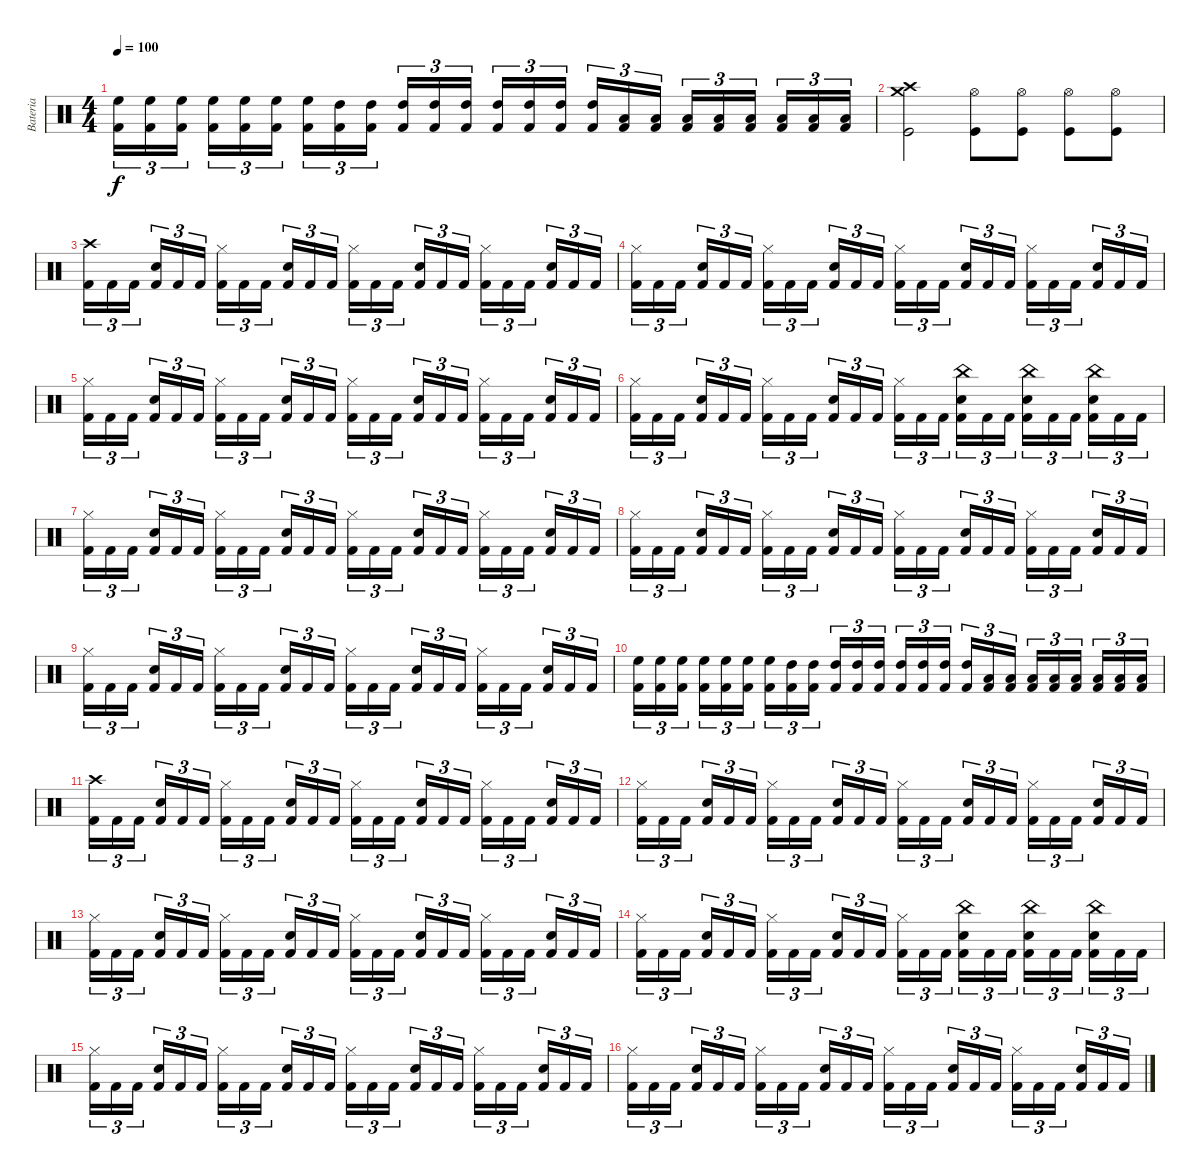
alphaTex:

\track ("Bateria" "Bateria") {instrument percussion}
\staff {score}
\articulation defaults
\ts (4 4)
\tempo 100
\clef neutral
\ks c
("High Floor Tom (hit)" "Kick (hit) 2").16{tu (3 2) dy f} ("High Floor Tom (hit)" "Kick (hit) 2").16{tu (3 2)} ("High Floor Tom (hit)" "Kick (hit) 2").16{tu (3 2)} ("High Floor Tom (hit)" "Kick (hit) 2").16{tu (3 2)} ("High Floor Tom (hit)" "Kick (hit) 2").16{tu (3 2)} ("High Floor Tom (hit)" "Kick (hit) 2").16{tu (3 2)} ("High Floor Tom (hit)" "Kick (hit) 2").16{tu (3 2)} ("High Tom (hit)" "Kick (hit) 2").16{tu (3 2)} ("High Tom (hit)" "Kick (hit) 2").16{tu (3 2)} ("High Tom (hit)" "Kick (hit) 2").16{tu (3 2)} ("High Tom (hit)" "Kick (hit) 2").16{tu (3 2)} ("High Tom (hit)" "Kick (hit) 2").16{tu (3 2)} ("High Tom (hit)" "Kick (hit) 2").16{tu (3 2)} ("High Tom (hit)" "Kick (hit) 2").16{tu (3 2)} ("High Tom (hit)" "Kick (hit) 2").16{tu (3 2)} ("High Tom (hit)" "Kick (hit) 2").16{tu (3 2)} ("Low Tom (hit)" "Kick (hit) 2").16{tu (3 2)} ("Low Tom (hit)" "Kick (hit) 2").16{tu (3 2)} ("Low Tom (hit)" "Kick (hit) 2").16{tu (3 2)} ("Low Tom (hit)" "Kick (hit) 2").16{tu (3 2)} ("Low Tom (hit)" "Kick (hit) 2").16{tu (3 2)} ("Low Tom (hit)" "Kick (hit) 2").16{tu (3 2)} ("Low Tom (hit)" "Kick (hit) 2").16{tu (3 2)} ("Low Tom (hit)" "Kick (hit) 2").16{tu (3 2)} |
("Crash high (hit)" "Crash medium (hit)" "Kick (hit)").2 ("Hi-Hat (open)" "Kick (hit)").8 ("Hi-Hat (open)" "Kick (hit)").8 ("Hi-Hat (open)" "Kick (hit)").8 ("Hi-Hat (open)" "Kick (hit)").8 |
("Crash high (hit)" "Kick (hit) 2").16{tu (3 2)} "Kick (hit) 2".16{tu (3 2)} "Kick (hit) 2".16{tu (3 2)} ("Snare (hit) 2" "Kick (hit) 2").16{tu (3 2)} "Kick (hit) 2".16{tu (3 2)} "Kick (hit) 2".16{tu (3 2)} ("Hi-Hat (closed)" "Kick (hit) 2").16{tu (3 2)} "Kick (hit) 2".16{tu (3 2)} "Kick (hit) 2".16{tu (3 2)} ("Snare (hit) 2" "Kick (hit) 2").16{tu (3 2)} "Kick (hit) 2".16{tu (3 2)} "Kick (hit) 2".16{tu (3 2)} ("Hi-Hat (closed)" "Kick (hit) 2").16{tu (3 2)} "Kick (hit) 2".16{tu (3 2)} "Kick (hit) 2".16{tu (3 2)} ("Snare (hit) 2" "Kick (hit) 2").16{tu (3 2)} "Kick (hit) 2".16{tu (3 2)} "Kick (hit) 2".16{tu (3 2)} ("Hi-Hat (closed)" "Kick (hit) 2").16{tu (3 2)} "Kick (hit) 2".16{tu (3 2)} "Kick (hit) 2".16{tu (3 2)} ("Snare (hit) 2" "Kick (hit) 2").16{tu (3 2)} "Kick (hit) 2".16{tu (3 2)} "Kick (hit) 2".16{tu (3 2)} |
("Hi-Hat (closed)" "Kick (hit) 2").16{tu (3 2)} "Kick (hit) 2".16{tu (3 2)} "Kick (hit) 2".16{tu (3 2)} ("Snare (hit) 2" "Kick (hit) 2").16{tu (3 2)} "Kick (hit) 2".16{tu (3 2)} "Kick (hit) 2".16{tu (3 2)} ("Hi-Hat (closed)" "Kick (hit) 2").16{tu (3 2)} "Kick (hit) 2".16{tu (3 2)} "Kick (hit) 2".16{tu (3 2)} ("Snare (hit) 2" "Kick (hit) 2").16{tu (3 2)} "Kick (hit) 2".16{tu (3 2)} "Kick (hit) 2".16{tu (3 2)} ("Hi-Hat (closed)" "Kick (hit) 2").16{tu (3 2)} "Kick (hit) 2".16{tu (3 2)} "Kick (hit) 2".16{tu (3 2)} ("Snare (hit) 2" "Kick (hit) 2").16{tu (3 2)} "Kick (hit) 2".16{tu (3 2)} "Kick (hit) 2".16{tu (3 2)} ("Hi-Hat (closed)" "Kick (hit) 2").16{tu (3 2)} "Kick (hit) 2".16{tu (3 2)} "Kick (hit) 2".16{tu (3 2)} ("Snare (hit) 2" "Kick (hit) 2").16{tu (3 2)} "Kick (hit) 2".16{tu (3 2)} "Kick (hit) 2".16{tu (3 2)} |
("Hi-Hat (closed)" "Kick (hit) 2").16{tu (3 2)} "Kick (hit) 2".16{tu (3 2)} "Kick (hit) 2".16{tu (3 2)} ("Snare (hit) 2" "Kick (hit) 2").16{tu (3 2)} "Kick (hit) 2".16{tu (3 2)} "Kick (hit) 2".16{tu (3 2)} ("Hi-Hat (closed)" "Kick (hit) 2").16{tu (3 2)} "Kick (hit) 2".16{tu (3 2)} "Kick (hit) 2".16{tu (3 2)} ("Snare (hit) 2" "Kick (hit) 2").16{tu (3 2)} "Kick (hit) 2".16{tu (3 2)} "Kick (hit) 2".16{tu (3 2)} ("Hi-Hat (closed)" "Kick (hit) 2").16{tu (3 2)} "Kick (hit) 2".16{tu (3 2)} "Kick (hit) 2".16{tu (3 2)} ("Snare (hit) 2" "Kick (hit) 2").16{tu (3 2)} "Kick (hit) 2".16{tu (3 2)} "Kick (hit) 2".16{tu (3 2)} ("Hi-Hat (closed)" "Kick (hit) 2").16{tu (3 2)} "Kick (hit) 2".16{tu (3 2)} "Kick (hit) 2".16{tu (3 2)} ("Snare (hit) 2" "Kick (hit) 2").16{tu (3 2)} "Kick (hit) 2".16{tu (3 2)} "Kick (hit) 2".16{tu (3 2)} |
("Hi-Hat (closed)" "Kick (hit) 2").16{tu (3 2)} "Kick (hit) 2".16{tu (3 2)} "Kick (hit) 2".16{tu (3 2)} ("Snare (hit) 2" "Kick (hit) 2").16{tu (3 2)} "Kick (hit) 2".16{tu (3 2)} "Kick (hit) 2".16{tu (3 2)} ("Hi-Hat (closed)" "Kick (hit) 2").16{tu (3 2)} "Kick (hit) 2".16{tu (3 2)} "Kick (hit) 2".16{tu (3 2)} ("Snare (hit) 2" "Kick (hit) 2").16{tu (3 2)} "Kick (hit) 2".16{tu (3 2)} "Kick (hit) 2".16{tu (3 2)} ("Hi-Hat (closed)" "Kick (hit) 2").16{tu (3 2)} "Kick (hit) 2".16{tu (3 2)} "Kick (hit) 2".16{tu (3 2)} ("China (hit)" "Snare (hit) 2" "Kick (hit) 2").16{tu (3 2)} "Kick (hit) 2".16{tu (3 2)} "Kick (hit) 2".16{tu (3 2)} ("China (hit)" "Snare (hit) 2" "Kick (hit) 2").16{tu (3 2)} "Kick (hit) 2".16{tu (3 2)} "Kick (hit) 2".16{tu (3 2)} ("China (hit)" "Snare (hit) 2" "Kick (hit) 2").16{tu (3 2)} "Kick (hit) 2".16{tu (3 2)} "Kick (hit) 2".16{tu (3 2)} |
("Hi-Hat (closed)" "Kick (hit) 2").16{tu (3 2)} "Kick (hit) 2".16{tu (3 2)} "Kick (hit) 2".16{tu (3 2)} ("Snare (hit) 2" "Kick (hit) 2").16{tu (3 2)} "Kick (hit) 2".16{tu (3 2)} "Kick (hit) 2".16{tu (3 2)} ("Hi-Hat (closed)" "Kick (hit) 2").16{tu (3 2)} "Kick (hit) 2".16{tu (3 2)} "Kick (hit) 2".16{tu (3 2)} ("Snare (hit) 2" "Kick (hit) 2").16{tu (3 2)} "Kick (hit) 2".16{tu (3 2)} "Kick (hit) 2".16{tu (3 2)} ("Hi-Hat (closed)" "Kick (hit) 2").16{tu (3 2)} "Kick (hit) 2".16{tu (3 2)} "Kick (hit) 2".16{tu (3 2)} ("Snare (hit) 2" "Kick (hit) 2").16{tu (3 2)} "Kick (hit) 2".16{tu (3 2)} "Kick (hit) 2".16{tu (3 2)} ("Hi-Hat (closed)" "Kick (hit) 2").16{tu (3 2)} "Kick (hit) 2".16{tu (3 2)} "Kick (hit) 2".16{tu (3 2)} ("Snare (hit) 2" "Kick (hit) 2").16{tu (3 2)} "Kick (hit) 2".16{tu (3 2)} "Kick (hit) 2".16{tu (3 2)} |
("Hi-Hat (closed)" "Kick (hit) 2").16{tu (3 2)} "Kick (hit) 2".16{tu (3 2)} "Kick (hit) 2".16{tu (3 2)} ("Snare (hit) 2" "Kick (hit) 2").16{tu (3 2)} "Kick (hit) 2".16{tu (3 2)} "Kick (hit) 2".16{tu (3 2)} ("Hi-Hat (closed)" "Kick (hit) 2").16{tu (3 2)} "Kick (hit) 2".16{tu (3 2)} "Kick (hit) 2".16{tu (3 2)} ("Snare (hit) 2" "Kick (hit) 2").16{tu (3 2)} "Kick (hit) 2".16{tu (3 2)} "Kick (hit) 2".16{tu (3 2)} ("Hi-Hat (closed)" "Kick (hit) 2").16{tu (3 2)} "Kick (hit) 2".16{tu (3 2)} "Kick (hit) 2".16{tu (3 2)} ("Snare (hit) 2" "Kick (hit) 2").16{tu (3 2)} "Kick (hit) 2".16{tu (3 2)} "Kick (hit) 2".16{tu (3 2)} ("Hi-Hat (closed)" "Kick (hit) 2").16{tu (3 2)} "Kick (hit) 2".16{tu (3 2)} "Kick (hit) 2".16{tu (3 2)} ("Snare (hit) 2" "Kick (hit) 2").16{tu (3 2)} "Kick (hit) 2".16{tu (3 2)} "Kick (hit) 2".16{tu (3 2)} |
("Hi-Hat (closed)" "Kick (hit) 2").16{tu (3 2)} "Kick (hit) 2".16{tu (3 2)} "Kick (hit) 2".16{tu (3 2)} ("Snare (hit) 2" "Kick (hit) 2").16{tu (3 2)} "Kick (hit) 2".16{tu (3 2)} "Kick (hit) 2".16{tu (3 2)} ("Hi-Hat (closed)" "Kick (hit) 2").16{tu (3 2)} "Kick (hit) 2".16{tu (3 2)} "Kick (hit) 2".16{tu (3 2)} ("Snare (hit) 2" "Kick (hit) 2").16{tu (3 2)} "Kick (hit) 2".16{tu (3 2)} "Kick (hit) 2".16{tu (3 2)} ("Hi-Hat (closed)" "Kick (hit) 2").16{tu (3 2)} "Kick (hit) 2".16{tu (3 2)} "Kick (hit) 2".16{tu (3 2)} ("Snare (hit) 2" "Kick (hit) 2").16{tu (3 2)} "Kick (hit) 2".16{tu (3 2)} "Kick (hit) 2".16{tu (3 2)} ("Hi-Hat (closed)" "Kick (hit) 2").16{tu (3 2)} "Kick (hit) 2".16{tu (3 2)} "Kick (hit) 2".16{tu (3 2)} ("Snare (hit) 2" "Kick (hit) 2").16{tu (3 2)} "Kick (hit) 2".16{tu (3 2)} "Kick (hit) 2".16{tu (3 2)} |
("High Floor Tom (hit)" "Kick (hit) 2").16{tu (3 2)} ("High Floor Tom (hit)" "Kick (hit) 2").16{tu (3 2)} ("High Floor Tom (hit)" "Kick (hit) 2").16{tu (3 2)} ("High Floor Tom (hit)" "Kick (hit) 2").16{tu (3 2)} ("High Floor Tom (hit)" "Kick (hit) 2").16{tu (3 2)} ("High Floor Tom (hit)" "Kick (hit) 2").16{tu (3 2)} ("High Floor Tom (hit)" "Kick (hit) 2").16{tu (3 2)} ("High Tom (hit)" "Kick (hit) 2").16{tu (3 2)} ("High Tom (hit)" "Kick (hit) 2").16{tu (3 2)} ("High Tom (hit)" "Kick (hit) 2").16{tu (3 2)} ("High Tom (hit)" "Kick (hit) 2").16{tu (3 2)} ("High Tom (hit)" "Kick (hit) 2").16{tu (3 2)} ("High Tom (hit)" "Kick (hit) 2").16{tu (3 2)} ("High Tom (hit)" "Kick (hit) 2").16{tu (3 2)} ("High Tom (hit)" "Kick (hit) 2").16{tu (3 2)} ("High Tom (hit)" "Kick (hit) 2").16{tu (3 2)} ("Low Tom (hit)" "Kick (hit) 2").16{tu (3 2)} ("Low Tom (hit)" "Kick (hit) 2").16{tu (3 2)} ("Low Tom (hit)" "Kick (hit) 2").16{tu (3 2)} ("Low Tom (hit)" "Kick (hit) 2").16{tu (3 2)} ("Low Tom (hit)" "Kick (hit) 2").16{tu (3 2)} ("Low Tom (hit)" "Kick (hit) 2").16{tu (3 2)} ("Low Tom (hit)" "Kick (hit) 2").16{tu (3 2)} ("Low Tom (hit)" "Kick (hit) 2").16{tu (3 2)} |
("Crash high (hit)" "Kick (hit) 2").16{tu (3 2)} "Kick (hit) 2".16{tu (3 2)} "Kick (hit) 2".16{tu (3 2)} ("Snare (hit) 2" "Kick (hit) 2").16{tu (3 2)} "Kick (hit) 2".16{tu (3 2)} "Kick (hit) 2".16{tu (3 2)} ("Hi-Hat (closed)" "Kick (hit) 2").16{tu (3 2)} "Kick (hit) 2".16{tu (3 2)} "Kick (hit) 2".16{tu (3 2)} ("Snare (hit) 2" "Kick (hit) 2").16{tu (3 2)} "Kick (hit) 2".16{tu (3 2)} "Kick (hit) 2".16{tu (3 2)} ("Hi-Hat (closed)" "Kick (hit) 2").16{tu (3 2)} "Kick (hit) 2".16{tu (3 2)} "Kick (hit) 2".16{tu (3 2)} ("Snare (hit) 2" "Kick (hit) 2").16{tu (3 2)} "Kick (hit) 2".16{tu (3 2)} "Kick (hit) 2".16{tu (3 2)} ("Hi-Hat (closed)" "Kick (hit) 2").16{tu (3 2)} "Kick (hit) 2".16{tu (3 2)} "Kick (hit) 2".16{tu (3 2)} ("Snare (hit) 2" "Kick (hit) 2").16{tu (3 2)} "Kick (hit) 2".16{tu (3 2)} "Kick (hit) 2".16{tu (3 2)} |
("Hi-Hat (closed)" "Kick (hit) 2").16{tu (3 2)} "Kick (hit) 2".16{tu (3 2)} "Kick (hit) 2".16{tu (3 2)} ("Snare (hit) 2" "Kick (hit) 2").16{tu (3 2)} "Kick (hit) 2".16{tu (3 2)} "Kick (hit) 2".16{tu (3 2)} ("Hi-Hat (closed)" "Kick (hit) 2").16{tu (3 2)} "Kick (hit) 2".16{tu (3 2)} "Kick (hit) 2".16{tu (3 2)} ("Snare (hit) 2" "Kick (hit) 2").16{tu (3 2)} "Kick (hit) 2".16{tu (3 2)} "Kick (hit) 2".16{tu (3 2)} ("Hi-Hat (closed)" "Kick (hit) 2").16{tu (3 2)} "Kick (hit) 2".16{tu (3 2)} "Kick (hit) 2".16{tu (3 2)} ("Snare (hit) 2" "Kick (hit) 2").16{tu (3 2)} "Kick (hit) 2".16{tu (3 2)} "Kick (hit) 2".16{tu (3 2)} ("Hi-Hat (closed)" "Kick (hit) 2").16{tu (3 2)} "Kick (hit) 2".16{tu (3 2)} "Kick (hit) 2".16{tu (3 2)} ("Snare (hit) 2" "Kick (hit) 2").16{tu (3 2)} "Kick (hit) 2".16{tu (3 2)} "Kick (hit) 2".16{tu (3 2)} |
("Hi-Hat (closed)" "Kick (hit) 2").16{tu (3 2)} "Kick (hit) 2".16{tu (3 2)} "Kick (hit) 2".16{tu (3 2)} ("Snare (hit) 2" "Kick (hit) 2").16{tu (3 2)} "Kick (hit) 2".16{tu (3 2)} "Kick (hit) 2".16{tu (3 2)} ("Hi-Hat (closed)" "Kick (hit) 2").16{tu (3 2)} "Kick (hit) 2".16{tu (3 2)} "Kick (hit) 2".16{tu (3 2)} ("Snare (hit) 2" "Kick (hit) 2").16{tu (3 2)} "Kick (hit) 2".16{tu (3 2)} "Kick (hit) 2".16{tu (3 2)} ("Hi-Hat (closed)" "Kick (hit) 2").16{tu (3 2)} "Kick (hit) 2".16{tu (3 2)} "Kick (hit) 2".16{tu (3 2)} ("Snare (hit) 2" "Kick (hit) 2").16{tu (3 2)} "Kick (hit) 2".16{tu (3 2)} "Kick (hit) 2".16{tu (3 2)} ("Hi-Hat (closed)" "Kick (hit) 2").16{tu (3 2)} "Kick (hit) 2".16{tu (3 2)} "Kick (hit) 2".16{tu (3 2)} ("Snare (hit) 2" "Kick (hit) 2").16{tu (3 2)} "Kick (hit) 2".16{tu (3 2)} "Kick (hit) 2".16{tu (3 2)} |
("Hi-Hat (closed)" "Kick (hit) 2").16{tu (3 2)} "Kick (hit) 2".16{tu (3 2)} "Kick (hit) 2".16{tu (3 2)} ("Snare (hit) 2" "Kick (hit) 2").16{tu (3 2)} "Kick (hit) 2".16{tu (3 2)} "Kick (hit) 2".16{tu (3 2)} ("Hi-Hat (closed)" "Kick (hit) 2").16{tu (3 2)} "Kick (hit) 2".16{tu (3 2)} "Kick (hit) 2".16{tu (3 2)} ("Snare (hit) 2" "Kick (hit) 2").16{tu (3 2)} "Kick (hit) 2".16{tu (3 2)} "Kick (hit) 2".16{tu (3 2)} ("Hi-Hat (closed)" "Kick (hit) 2").16{tu (3 2)} "Kick (hit) 2".16{tu (3 2)} "Kick (hit) 2".16{tu (3 2)} ("China (hit)" "Snare (hit) 2" "Kick (hit) 2").16{tu (3 2)} "Kick (hit) 2".16{tu (3 2)} "Kick (hit) 2".16{tu (3 2)} ("China (hit)" "Snare (hit) 2" "Kick (hit) 2").16{tu (3 2)} "Kick (hit) 2".16{tu (3 2)} "Kick (hit) 2".16{tu (3 2)} ("China (hit)" "Snare (hit) 2" "Kick (hit) 2").16{tu (3 2)} "Kick (hit) 2".16{tu (3 2)} "Kick (hit) 2".16{tu (3 2)} |
("Hi-Hat (closed)" "Kick (hit) 2").16{tu (3 2)} "Kick (hit) 2".16{tu (3 2)} "Kick (hit) 2".16{tu (3 2)} ("Snare (hit) 2" "Kick (hit) 2").16{tu (3 2)} "Kick (hit) 2".16{tu (3 2)} "Kick (hit) 2".16{tu (3 2)} ("Hi-Hat (closed)" "Kick (hit) 2").16{tu (3 2)} "Kick (hit) 2".16{tu (3 2)} "Kick (hit) 2".16{tu (3 2)} ("Snare (hit) 2" "Kick (hit) 2").16{tu (3 2)} "Kick (hit) 2".16{tu (3 2)} "Kick (hit) 2".16{tu (3 2)} ("Hi-Hat (closed)" "Kick (hit) 2").16{tu (3 2)} "Kick (hit) 2".16{tu (3 2)} "Kick (hit) 2".16{tu (3 2)} ("Snare (hit) 2" "Kick (hit) 2").16{tu (3 2)} "Kick (hit) 2".16{tu (3 2)} "Kick (hit) 2".16{tu (3 2)} ("Hi-Hat (closed)" "Kick (hit) 2").16{tu (3 2)} "Kick (hit) 2".16{tu (3 2)} "Kick (hit) 2".16{tu (3 2)} ("Snare (hit) 2" "Kick (hit) 2").16{tu (3 2)} "Kick (hit) 2".16{tu (3 2)} "Kick (hit) 2".16{tu (3 2)} |
("Hi-Hat (closed)" "Kick (hit) 2").16{tu (3 2)} "Kick (hit) 2".16{tu (3 2)} "Kick (hit) 2".16{tu (3 2)} ("Snare (hit) 2" "Kick (hit) 2").16{tu (3 2)} "Kick (hit) 2".16{tu (3 2)} "Kick (hit) 2".16{tu (3 2)} ("Hi-Hat (closed)" "Kick (hit) 2").16{tu (3 2)} "Kick (hit) 2".16{tu (3 2)} "Kick (hit) 2".16{tu (3 2)} ("Snare (hit) 2" "Kick (hit) 2").16{tu (3 2)} "Kick (hit) 2".16{tu (3 2)} "Kick (hit) 2".16{tu (3 2)} ("Hi-Hat (closed)" "Kick (hit) 2").16{tu (3 2)} "Kick (hit) 2".16{tu (3 2)} "Kick (hit) 2".16{tu (3 2)} ("Snare (hit) 2" "Kick (hit) 2").16{tu (3 2)} "Kick (hit) 2".16{tu (3 2)} "Kick (hit) 2".16{tu (3 2)} ("Hi-Hat (closed)" "Kick (hit) 2").16{tu (3 2)} "Kick (hit) 2".16{tu (3 2)} "Kick (hit) 2".16{tu (3 2)} ("Snare (hit) 2" "Kick (hit) 2").16{tu (3 2)} "Kick (hit) 2".16{tu (3 2)} "Kick (hit) 2".16{tu (3 2)}
